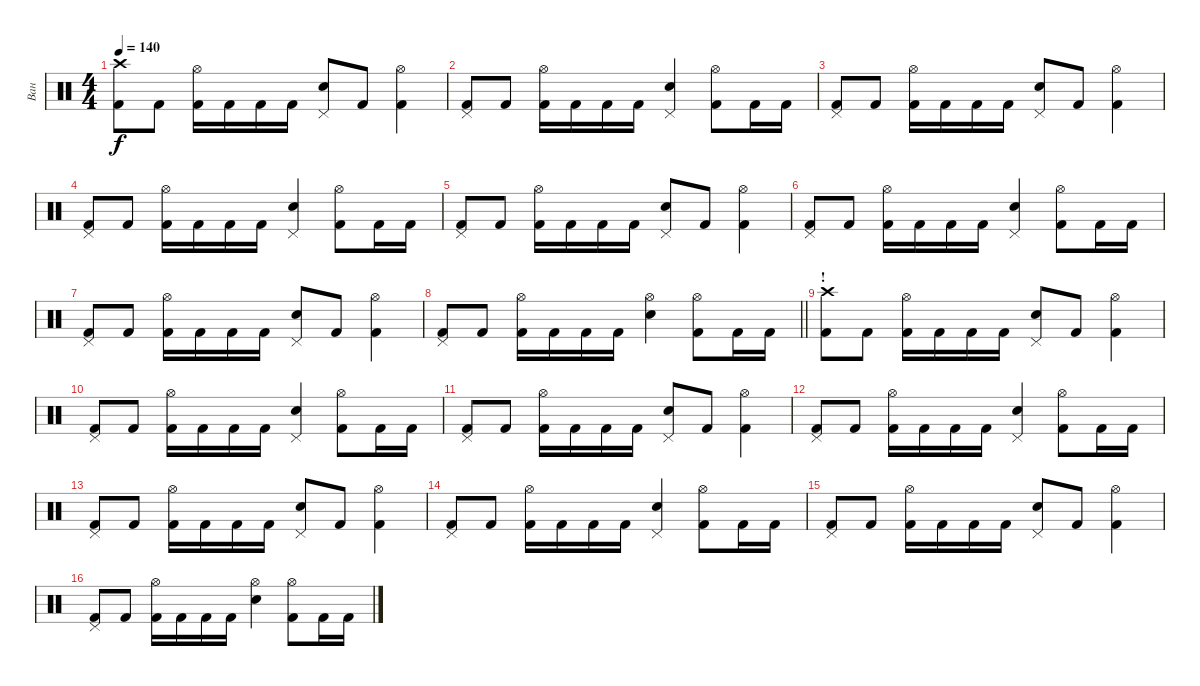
\track ("Ван" "Ван") {instrument percussion}
\staff {score}
\articulation defaults
\ts (4 4)
\tempo 140
\clef neutral
\ks c
("Crash high (hit)" "Kick (hit) 2").8{dy f} "Kick (hit) 2".8 ("Hi-Hat (open)" "Kick (hit) 2").16 "Kick (hit) 2".16 "Kick (hit) 2".16 "Kick (hit) 2".16 ("Pedal Hi-Hat (hit)" "Snare (hit) 2").8 "Kick (hit) 2".8 ("Hi-Hat (open)" "Kick (hit) 2").4 |
("Pedal Hi-Hat (hit)" "Kick (hit) 2").8 "Kick (hit) 2".8 ("Hi-Hat (open)" "Kick (hit) 2").16 "Kick (hit) 2".16 "Kick (hit) 2".16 "Kick (hit) 2".16 ("Pedal Hi-Hat (hit)" "Snare (hit) 2").4 ("Hi-Hat (open)" "Kick (hit) 2").8 "Kick (hit) 2".16 "Kick (hit) 2".16 |
("Pedal Hi-Hat (hit)" "Kick (hit) 2").8 "Kick (hit) 2".8 ("Hi-Hat (open)" "Kick (hit) 2").16 "Kick (hit) 2".16 "Kick (hit) 2".16 "Kick (hit) 2".16 ("Pedal Hi-Hat (hit)" "Snare (hit) 2").8 "Kick (hit) 2".8 ("Hi-Hat (open)" "Kick (hit) 2").4 |
("Pedal Hi-Hat (hit)" "Kick (hit) 2").8 "Kick (hit) 2".8 ("Hi-Hat (open)" "Kick (hit) 2").16 "Kick (hit) 2".16 "Kick (hit) 2".16 "Kick (hit) 2".16 ("Pedal Hi-Hat (hit)" "Snare (hit) 2").4 ("Hi-Hat (open)" "Kick (hit) 2").8 "Kick (hit) 2".16 "Kick (hit) 2".16 |
("Pedal Hi-Hat (hit)" "Kick (hit) 2").8 "Kick (hit) 2".8 ("Hi-Hat (open)" "Kick (hit) 2").16 "Kick (hit) 2".16 "Kick (hit) 2".16 "Kick (hit) 2".16 ("Pedal Hi-Hat (hit)" "Snare (hit) 2").8 "Kick (hit) 2".8 ("Hi-Hat (open)" "Kick (hit) 2").4 |
("Pedal Hi-Hat (hit)" "Kick (hit) 2").8 "Kick (hit) 2".8 ("Hi-Hat (open)" "Kick (hit) 2").16 "Kick (hit) 2".16 "Kick (hit) 2".16 "Kick (hit) 2".16 ("Pedal Hi-Hat (hit)" "Snare (hit) 2").4 ("Hi-Hat (open)" "Kick (hit) 2").8 "Kick (hit) 2".16 "Kick (hit) 2".16 |
("Pedal Hi-Hat (hit)" "Kick (hit) 2").8 "Kick (hit) 2".8 ("Hi-Hat (open)" "Kick (hit) 2").16 "Kick (hit) 2".16 "Kick (hit) 2".16 "Kick (hit) 2".16 ("Pedal Hi-Hat (hit)" "Snare (hit) 2").8 "Kick (hit) 2".8 ("Hi-Hat (open)" "Kick (hit) 2").4 |
\barLineRight lightlight
("Pedal Hi-Hat (hit)" "Kick (hit) 2").8 "Kick (hit) 2".8 ("Hi-Hat (open)" "Kick (hit) 2").16 "Kick (hit) 2".16 "Kick (hit) 2".16 "Kick (hit) 2".16 ("Hi-Hat (open)" "Snare (hit) 2").4 ("Hi-Hat (open)" "Kick (hit) 2").8 "Kick (hit) 2".16 "Kick (hit) 2".16 |
\section ("" "!")
("Crash high (hit)" "Kick (hit) 2").8 "Kick (hit) 2".8 ("Hi-Hat (open)" "Kick (hit) 2").16 "Kick (hit) 2".16 "Kick (hit) 2".16 "Kick (hit) 2".16 ("Pedal Hi-Hat (hit)" "Snare (hit) 2").8 "Kick (hit) 2".8 ("Hi-Hat (open)" "Kick (hit) 2").4 |
("Pedal Hi-Hat (hit)" "Kick (hit) 2").8 "Kick (hit) 2".8 ("Hi-Hat (open)" "Kick (hit) 2").16 "Kick (hit) 2".16 "Kick (hit) 2".16 "Kick (hit) 2".16 ("Pedal Hi-Hat (hit)" "Snare (hit) 2").4 ("Hi-Hat (open)" "Kick (hit) 2").8 "Kick (hit) 2".16 "Kick (hit) 2".16 |
("Pedal Hi-Hat (hit)" "Kick (hit) 2").8 "Kick (hit) 2".8 ("Hi-Hat (open)" "Kick (hit) 2").16 "Kick (hit) 2".16 "Kick (hit) 2".16 "Kick (hit) 2".16 ("Pedal Hi-Hat (hit)" "Snare (hit) 2").8 "Kick (hit) 2".8 ("Hi-Hat (open)" "Kick (hit) 2").4 |
("Pedal Hi-Hat (hit)" "Kick (hit) 2").8 "Kick (hit) 2".8 ("Hi-Hat (open)" "Kick (hit) 2").16 "Kick (hit) 2".16 "Kick (hit) 2".16 "Kick (hit) 2".16 ("Pedal Hi-Hat (hit)" "Snare (hit) 2").4 ("Hi-Hat (open)" "Kick (hit) 2").8 "Kick (hit) 2".16 "Kick (hit) 2".16 |
("Pedal Hi-Hat (hit)" "Kick (hit) 2").8 "Kick (hit) 2".8 ("Hi-Hat (open)" "Kick (hit) 2").16 "Kick (hit) 2".16 "Kick (hit) 2".16 "Kick (hit) 2".16 ("Pedal Hi-Hat (hit)" "Snare (hit) 2").8 "Kick (hit) 2".8 ("Hi-Hat (open)" "Kick (hit) 2").4 |
("Pedal Hi-Hat (hit)" "Kick (hit) 2").8 "Kick (hit) 2".8 ("Hi-Hat (open)" "Kick (hit) 2").16 "Kick (hit) 2".16 "Kick (hit) 2".16 "Kick (hit) 2".16 ("Pedal Hi-Hat (hit)" "Snare (hit) 2").4 ("Hi-Hat (open)" "Kick (hit) 2").8 "Kick (hit) 2".16 "Kick (hit) 2".16 |
("Pedal Hi-Hat (hit)" "Kick (hit) 2").8 "Kick (hit) 2".8 ("Hi-Hat (open)" "Kick (hit) 2").16 "Kick (hit) 2".16 "Kick (hit) 2".16 "Kick (hit) 2".16 ("Pedal Hi-Hat (hit)" "Snare (hit) 2").8 "Kick (hit) 2".8 ("Hi-Hat (open)" "Kick (hit) 2").4 |
("Pedal Hi-Hat (hit)" "Kick (hit) 2").8 "Kick (hit) 2".8 ("Hi-Hat (open)" "Kick (hit) 2").16 "Kick (hit) 2".16 "Kick (hit) 2".16 "Kick (hit) 2".16 ("Hi-Hat (open)" "Snare (hit) 2").4 ("Hi-Hat (open)" "Kick (hit) 2").8 "Kick (hit) 2".16 "Kick (hit) 2".16
